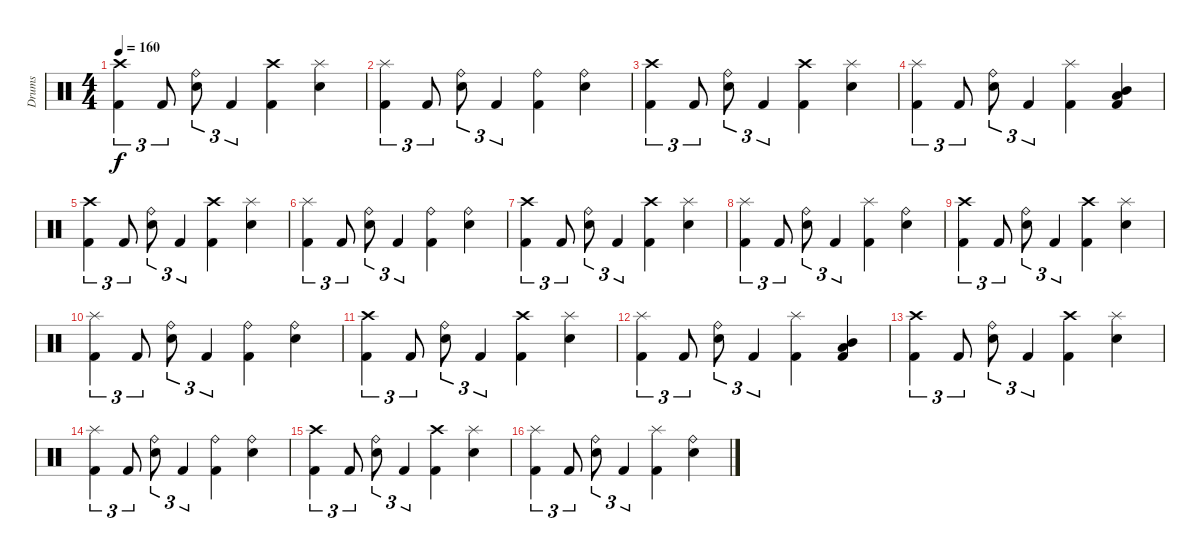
\track ("Drums" "Drums") {instrument percussion}
\staff {score}
\articulation defaults
\ts (4 4)
\tempo 160
\clef neutral
\ks c
("Crash high (hit)" "Kick (hit) 2").4{tu (3 2) dy f} "Kick (hit) 2".8{tu (3 2)} ("Ride (bell)" "Snare (hit) 2").8{tu (3 2)} "Kick (hit) 2".4{tu (3 2)} ("Crash high (hit)" "Kick (hit) 2").4 ("Splash (hit)" "Snare (hit) 2").4 |
("Splash (hit)" "Kick (hit) 2").4{tu (3 2)} "Kick (hit) 2".8{tu (3 2)} ("Ride (bell)" "Snare (hit) 2").8{tu (3 2)} "Kick (hit) 2".4{tu (3 2)} ("Ride (bell)" "Kick (hit) 2").4 ("Ride (bell)" "Snare (hit) 2").4 |
("Crash high (hit)" "Kick (hit) 2").4{tu (3 2)} "Kick (hit) 2".8{tu (3 2)} ("Ride (bell)" "Snare (hit) 2").8{tu (3 2)} "Kick (hit) 2".4{tu (3 2)} ("Crash high (hit)" "Kick (hit) 2").4 ("Splash (hit)" "Snare (hit) 2").4 |
("Splash (hit)" "Kick (hit) 2").4{tu (3 2)} "Kick (hit) 2".8{tu (3 2)} ("Ride (bell)" "Snare (hit) 2").8{tu (3 2)} "Kick (hit) 2".4{tu (3 2)} ("Splash (hit)" "Kick (hit) 2").4 ("Mid Tom (hit)" "Low Tom (hit)" "Kick (hit) 2").4 |
("Crash high (hit)" "Kick (hit) 2").4{tu (3 2)} "Kick (hit) 2".8{tu (3 2)} ("Ride (bell)" "Snare (hit) 2").8{tu (3 2)} "Kick (hit) 2".4{tu (3 2)} ("Crash high (hit)" "Kick (hit) 2").4 ("Splash (hit)" "Snare (hit) 2").4 |
("Splash (hit)" "Kick (hit) 2").4{tu (3 2)} "Kick (hit) 2".8{tu (3 2)} ("Ride (bell)" "Snare (hit) 2").8{tu (3 2)} "Kick (hit) 2".4{tu (3 2)} ("Ride (bell)" "Kick (hit) 2").4 ("Ride (bell)" "Snare (hit) 2").4 |
("Crash high (hit)" "Kick (hit) 2").4{tu (3 2)} "Kick (hit) 2".8{tu (3 2)} ("Ride (bell)" "Snare (hit) 2").8{tu (3 2)} "Kick (hit) 2".4{tu (3 2)} ("Crash high (hit)" "Kick (hit) 2").4 ("Splash (hit)" "Snare (hit) 2").4 |
("Splash (hit)" "Kick (hit) 2").4{tu (3 2)} "Kick (hit) 2".8{tu (3 2)} ("Ride (bell)" "Snare (hit) 2").8{tu (3 2)} "Kick (hit) 2".4{tu (3 2)} ("Splash (hit)" "Kick (hit) 2").4 ("Ride (bell)" "Snare (hit) 2").4 |
("Crash high (hit)" "Kick (hit) 2").4{tu (3 2)} "Kick (hit) 2".8{tu (3 2)} ("Ride (bell)" "Snare (hit) 2").8{tu (3 2)} "Kick (hit) 2".4{tu (3 2)} ("Crash high (hit)" "Kick (hit) 2").4 ("Splash (hit)" "Snare (hit) 2").4 |
("Splash (hit)" "Kick (hit) 2").4{tu (3 2)} "Kick (hit) 2".8{tu (3 2)} ("Ride (bell)" "Snare (hit) 2").8{tu (3 2)} "Kick (hit) 2".4{tu (3 2)} ("Ride (bell)" "Kick (hit) 2").4 ("Ride (bell)" "Snare (hit) 2").4 |
("Crash high (hit)" "Kick (hit) 2").4{tu (3 2)} "Kick (hit) 2".8{tu (3 2)} ("Ride (bell)" "Snare (hit) 2").8{tu (3 2)} "Kick (hit) 2".4{tu (3 2)} ("Crash high (hit)" "Kick (hit) 2").4 ("Splash (hit)" "Snare (hit) 2").4 |
("Splash (hit)" "Kick (hit) 2").4{tu (3 2)} "Kick (hit) 2".8{tu (3 2)} ("Ride (bell)" "Snare (hit) 2").8{tu (3 2)} "Kick (hit) 2".4{tu (3 2)} ("Splash (hit)" "Kick (hit) 2").4 ("Mid Tom (hit)" "Low Tom (hit)" "Kick (hit) 2").4 |
("Crash high (hit)" "Kick (hit) 2").4{tu (3 2)} "Kick (hit) 2".8{tu (3 2)} ("Ride (bell)" "Snare (hit) 2").8{tu (3 2)} "Kick (hit) 2".4{tu (3 2)} ("Crash high (hit)" "Kick (hit) 2").4 ("Splash (hit)" "Snare (hit) 2").4 |
("Splash (hit)" "Kick (hit) 2").4{tu (3 2)} "Kick (hit) 2".8{tu (3 2)} ("Ride (bell)" "Snare (hit) 2").8{tu (3 2)} "Kick (hit) 2".4{tu (3 2)} ("Ride (bell)" "Kick (hit) 2").4 ("Ride (bell)" "Snare (hit) 2").4 |
("Crash high (hit)" "Kick (hit) 2").4{tu (3 2)} "Kick (hit) 2".8{tu (3 2)} ("Ride (bell)" "Snare (hit) 2").8{tu (3 2)} "Kick (hit) 2".4{tu (3 2)} ("Crash high (hit)" "Kick (hit) 2").4 ("Splash (hit)" "Snare (hit) 2").4 |
("Splash (hit)" "Kick (hit) 2").4{tu (3 2)} "Kick (hit) 2".8{tu (3 2)} ("Ride (bell)" "Snare (hit) 2").8{tu (3 2)} "Kick (hit) 2".4{tu (3 2)} ("Splash (hit)" "Kick (hit) 2").4 ("Ride (bell)" "Snare (hit) 2").4
